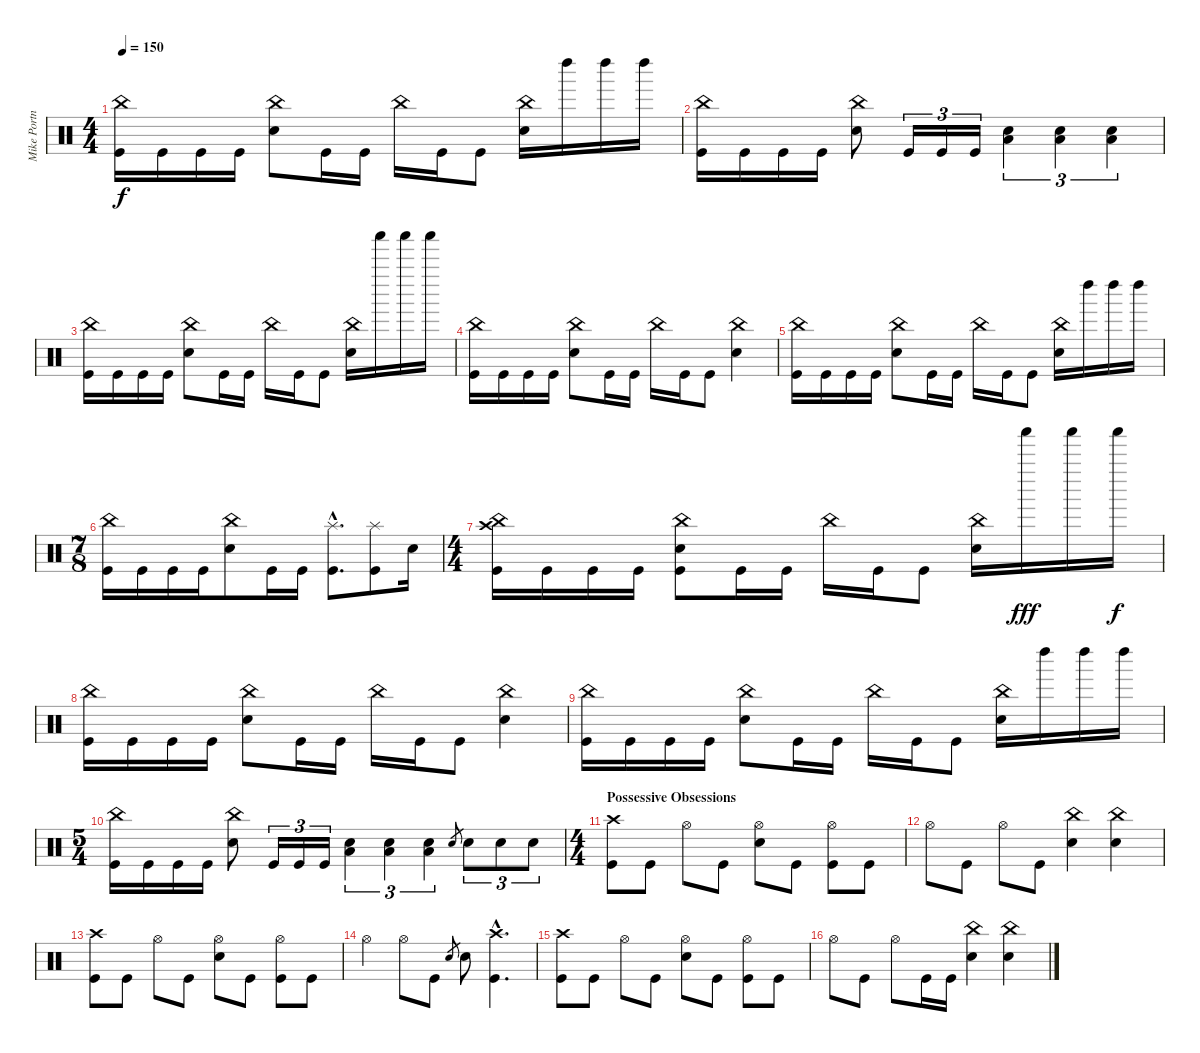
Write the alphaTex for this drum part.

\track ("Mike Portnoy" "Mike Portn") {instrument percussion}
\staff {score}
\articulation defaults
\ts (4 4)
\tempo 150
\clef neutral
\ks c
("China (hit)" "Kick (hit)").16{dy f} "Kick (hit)".16 "Kick (hit)".16 "Kick (hit)".16 ("China (hit)" "Electric Snare (hit)").8 "Kick (hit)".16 "Kick (hit)".16 "China (hit)".16 "Kick (hit)".16 "Kick (hit)".8 ("China (hit)" "Electric Snare (hit)").16 "Left Maraca (hit)".16 "Left Maraca (hit)".16 "Left Maraca (hit)".16 |
("China (hit)" "Kick (hit)").16 "Kick (hit)".16 "Kick (hit)".16 "Kick (hit)".16 ("China (hit)" "Electric Snare (hit)").8 "Kick (hit)".16{tu (3 2)} "Kick (hit)".16{tu (3 2)} "Kick (hit)".16{tu (3 2)} ("Low Tom (hit)" "Electric Snare (hit)").4{tu (3 2)} ("Low Tom (hit)" "Electric Snare (hit)").4{tu (3 2)} ("Low Tom (hit)" "Electric Snare (hit)").4{tu (3 2)} |
("China (hit)" "Kick (hit)").16 "Kick (hit)".16 "Kick (hit)".16 "Kick (hit)".16 ("China (hit)" "Electric Snare (hit)").8 "Kick (hit)".16 "Kick (hit)".16 "China (hit)".16 "Kick (hit)".16 "Kick (hit)".8 ("China (hit)" "Electric Snare (hit)").16 "Shaker (hit)".16 "Shaker (hit)".16 "Shaker (hit)".16 |
("China (hit)" "Kick (hit)").16 "Kick (hit)".16 "Kick (hit)".16 "Kick (hit)".16 ("China (hit)" "Electric Snare (hit)").8 "Kick (hit)".16 "Kick (hit)".16 "China (hit)".16 "Kick (hit)".16 "Kick (hit)".8 ("China (hit)" "Electric Snare (hit)").4 |
("China (hit)" "Kick (hit)").16 "Kick (hit)".16 "Kick (hit)".16 "Kick (hit)".16 ("China (hit)" "Electric Snare (hit)").8 "Kick (hit)".16 "Kick (hit)".16 "China (hit)".16 "Kick (hit)".16 "Kick (hit)".8 ("China (hit)" "Electric Snare (hit)").16 "Left Maraca (hit)".16 "Left Maraca (hit)".16 "Left Maraca (hit)".16 |
\ts (7 8)
("China (hit)" "Kick (hit)").16 "Kick (hit)".16 "Kick (hit)".16 "Kick (hit)".16 ("China (hit)" "Electric Snare (hit)").8 "Kick (hit)".16 "Kick (hit)".16 ("Splash (hit)"{hac} "Kick (hit)"{hac}).8{d} ("Splash (hit)" "Kick (hit)").8 "Electric Snare (hit)".16 |
\ts (4 4)
("Crash high (hit)" "China (hit)" "Kick (hit)").16 "Kick (hit)".16 "Kick (hit)".16 "Kick (hit)".16 ("China (hit)" "Electric Snare (hit)" "Kick (hit)").8 "Kick (hit)".16 "Kick (hit)".16 "China (hit)".16 "Kick (hit)".16 "Kick (hit)".8 ("China (hit)" "Electric Snare (hit)").16 "Shaker (hit)".16{dy fff} "Shaker (hit)".16 "Shaker (hit)".16{dy f} |
("China (hit)" "Kick (hit)").16 "Kick (hit)".16 "Kick (hit)".16 "Kick (hit)".16 ("China (hit)" "Electric Snare (hit)").8 "Kick (hit)".16 "Kick (hit)".16 "China (hit)".16 "Kick (hit)".16 "Kick (hit)".8 ("China (hit)" "Electric Snare (hit)").4 |
("China (hit)" "Kick (hit)").16 "Kick (hit)".16 "Kick (hit)".16 "Kick (hit)".16 ("China (hit)" "Electric Snare (hit)").8 "Kick (hit)".16 "Kick (hit)".16 "China (hit)".16 "Kick (hit)".16 "Kick (hit)".8 ("China (hit)" "Electric Snare (hit)").16 "Left Maraca (hit)".16 "Left Maraca (hit)".16 "Left Maraca (hit)".16 |
\ts (5 4)
("China (hit)" "Kick (hit)").16 "Kick (hit)".16 "Kick (hit)".16 "Kick (hit)".16 ("China (hit)" "Electric Snare (hit)").8 "Kick (hit)".16{tu (3 2)} "Kick (hit)".16{tu (3 2)} "Kick (hit)".16{tu (3 2)} ("Low Tom (hit)" "Electric Snare (hit)").4{tu (3 2)} ("Low Tom (hit)" "Electric Snare (hit)").4{tu (3 2)} ("Low Tom (hit)" "Electric Snare (hit)").4{tu (3 2)} "Electric Snare (hit)".8{gr} "Electric Snare (hit)".8{tu (3 2)} "Electric Snare (hit)".8{tu (3 2)} "Electric Snare (hit)".8{tu (3 2)} |
\ts (4 4)
\section ("" "Possessive Obsessions")
("Crash high (hit)" "Kick (hit)").8 "Kick (hit)".8 "Hi-Hat (open)".8 "Kick (hit)".8 ("Hi-Hat (open)" "Electric Snare (hit)").8 "Kick (hit)".8 ("Hi-Hat (open)" "Kick (hit)").8 "Kick (hit)".8 |
"Hi-Hat (open)".8 "Kick (hit)".8 "Hi-Hat (open)".8 "Kick (hit)".8 ("China (hit)" "Electric Snare (hit)").4 ("China (hit)" "Electric Snare (hit)").4 |
("Crash high (hit)" "Kick (hit)").8 "Kick (hit)".8 "Hi-Hat (open)".8 "Kick (hit)".8 ("Hi-Hat (open)" "Electric Snare (hit)").8 "Kick (hit)".8 ("Hi-Hat (open)" "Kick (hit)").8 "Kick (hit)".8 |
"Hi-Hat (open)".4 "Hi-Hat (open)".8 "Kick (hit)".8 "Electric Snare (hit)".8{gr} "Electric Snare (hit)".8 ("Crash high (hit)"{hac} "Kick (hit)"{hac}).4{d} |
("Crash high (hit)" "Kick (hit)").8 "Kick (hit)".8 "Hi-Hat (open)".8 "Kick (hit)".8 ("Hi-Hat (open)" "Electric Snare (hit)").8 "Kick (hit)".8 ("Hi-Hat (open)" "Kick (hit)").8 "Kick (hit)".8 |
"Hi-Hat (open)".8 "Kick (hit)".8 "Hi-Hat (open)".8 "Kick (hit)".16 "Kick (hit)".16 ("China (hit)" "Electric Snare (hit)").4 ("China (hit)" "Electric Snare (hit)").4
